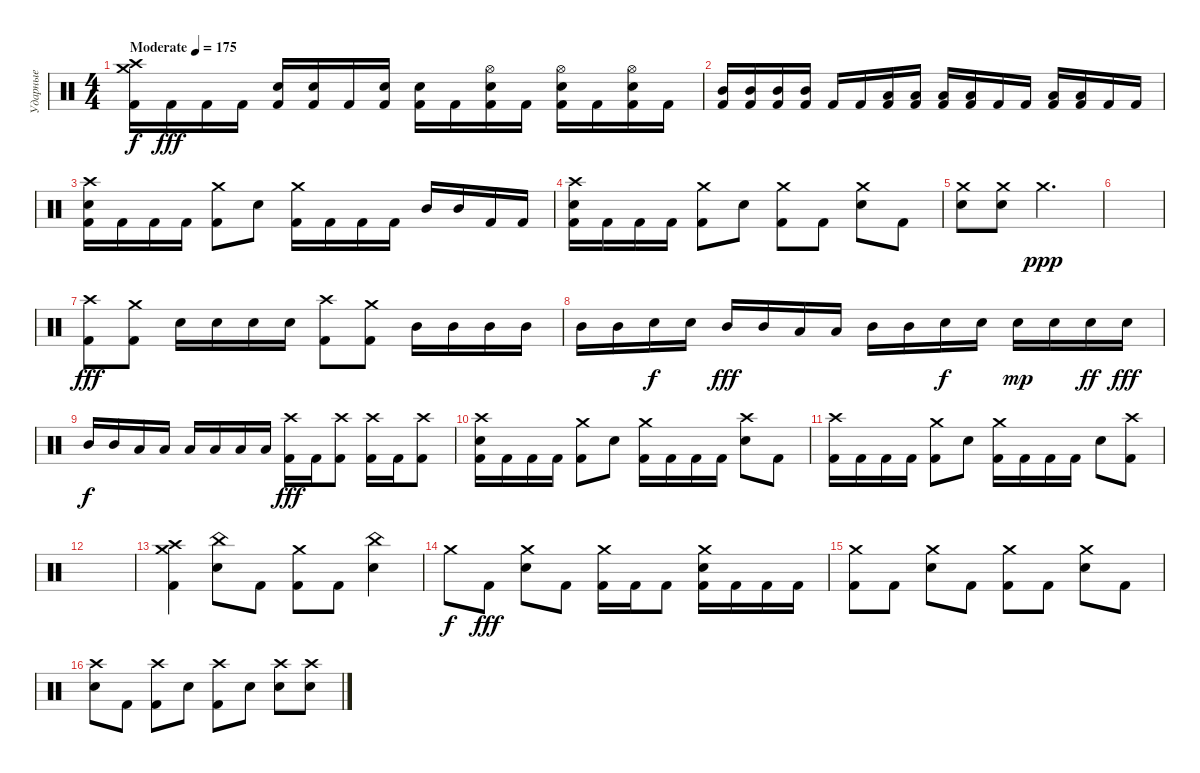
\track ("Ударные" "Ударные") {instrument percussion}
\staff {score}
\articulation defaults
\ts (4 4)
\tempo (175 "Moderate")
\clef neutral
\ks c
("Crash high (hit)" "Crash medium (hit)" "Kick (hit) 2").16{dy f} "Kick (hit) 2".16{dy fff} "Kick (hit) 2".16 "Kick (hit) 2".16 ("Electric Snare (hit)" "Kick (hit) 2").16 ("Electric Snare (hit)" "Kick (hit) 2").16 "Kick (hit) 2".16 ("Electric Snare (hit)" "Kick (hit) 2").16 ("Electric Snare (hit)" "Kick (hit) 2").16 "Kick (hit) 2".16 ("Hi-Hat (open)" "Electric Snare (hit)" "Kick (hit) 2").16 "Kick (hit) 2".16 ("Hi-Hat (open)" "Electric Snare (hit)" "Kick (hit) 2").16 "Kick (hit) 2".16 ("Hi-Hat (open)" "Electric Snare (hit)" "Kick (hit) 2").16 "Kick (hit) 2".16 |
("Mid Tom (hit)" "Kick (hit) 2").16 ("Mid Tom (hit)" "Kick (hit) 2").16 ("Mid Tom (hit)" "Kick (hit) 2").16 ("Mid Tom (hit)" "Kick (hit) 2").16 "Kick (hit) 2".16 "Kick (hit) 2".16 ("Low Tom (hit)" "Kick (hit) 2").16 ("Low Tom (hit)" "Kick (hit) 2").16 ("Low Tom (hit)" "Kick (hit) 2").16 ("Low Tom (hit)" "Kick (hit) 2").16 "Kick (hit) 2".16 "Kick (hit) 2".16 ("Low Floor Tom (hit)" "Kick (hit) 2").16 ("Low Floor Tom (hit)" "Kick (hit) 2").16 "Kick (hit) 2".16 "Kick (hit) 2".16 |
("Crash high (hit)" "Electric Snare (hit)" "Kick (hit) 2").16 "Kick (hit) 2".16 "Kick (hit) 2".16 "Kick (hit) 2".16 ("Crash medium (hit)" "Kick (hit) 2").8 "Electric Snare (hit)".8 ("Crash medium (hit)" "Kick (hit) 2").16 "Kick (hit) 2".16 "Kick (hit) 2".16 "Kick (hit) 2".16 "Mid Tom (hit)".16 "Mid Tom (hit)".16 "Kick (hit) 2".16 "Kick (hit) 2".16 |
("Crash high (hit)" "Electric Snare (hit)" "Kick (hit) 2").16 "Kick (hit) 2".16 "Kick (hit) 2".16 "Kick (hit) 2".16 ("Crash medium (hit)" "Kick (hit) 2").8 "Electric Snare (hit)".8 ("Crash medium (hit)" "Kick (hit) 2").8 "Kick (hit) 2".8 ("Crash medium (hit)" "Electric Snare (hit)").8 "Kick (hit) 2".8 |
("Crash medium (hit)" "Electric Snare (hit)").8 ("Crash medium (hit)" "Electric Snare (hit)").8 "Crash medium (hit)".2{d dy ppp} |
|
("Crash high (hit)" "Kick (hit) 2").8{dy fff} ("Crash medium (hit)" "Kick (hit) 2").8 "Electric Snare (hit)".16 "Electric Snare (hit)".16 "Electric Snare (hit)".16 "Electric Snare (hit)".16 ("Crash high (hit)" "Kick (hit) 2").8 ("Crash medium (hit)" "Kick (hit) 2").8 "Mid Tom (hit)".16 "Mid Tom (hit)".16 "Mid Tom (hit)".16 "Mid Tom (hit)".16 |
"Mid Tom (hit)".16 "Mid Tom (hit)".16 "Electric Snare (hit)".16{dy f} "Electric Snare (hit)".16 "Mid Tom (hit)".16{dy fff} "Mid Tom (hit)".16 "Low Tom (hit)".16 "Low Tom (hit)".16 "Mid Tom (hit)".16 "Mid Tom (hit)".16 "Electric Snare (hit)".16{dy f} "Electric Snare (hit)".16 "Electric Snare (hit)".16{dy mp} "Electric Snare (hit)".16 "Electric Snare (hit)".16{dy ff} "Electric Snare (hit)".16{dy fff} |
"Mid Tom (hit)".16{dy f} "Mid Tom (hit)".16 "Low Tom (hit)".16 "Low Tom (hit)".16 "Low Floor Tom (hit)".16 "Low Floor Tom (hit)".16 "Low Floor Tom (hit)".16 "Low Floor Tom (hit)".16 ("Crash high (hit)" "Kick (hit) 2").16{dy fff} "Kick (hit) 2".16 ("Crash high (hit)" "Kick (hit) 2").8 ("Crash high (hit)" "Kick (hit) 2").16 "Kick (hit) 2".16 ("Crash high (hit)" "Kick (hit) 2").8 |
("Crash high (hit)" "Electric Snare (hit)" "Kick (hit) 2").16 "Kick (hit) 2".16 "Kick (hit) 2".16 "Kick (hit) 2".16 ("Crash medium (hit)" "Kick (hit) 2").8 "Electric Snare (hit)".8 ("Crash medium (hit)" "Kick (hit) 2").16 "Kick (hit) 2".16 "Kick (hit) 2".16 "Kick (hit) 2".16 ("Crash high (hit)" "Electric Snare (hit)").8 "Kick (hit) 2".8 |
("Crash high (hit)" "Kick (hit) 2").16 "Kick (hit) 2".16 "Kick (hit) 2".16 "Kick (hit) 2".16 ("Crash medium (hit)" "Kick (hit) 2").8 "Electric Snare (hit)".8 ("Crash medium (hit)" "Kick (hit) 2").16 "Kick (hit) 2".16 "Kick (hit) 2".16 "Kick (hit) 2".16 "Electric Snare (hit)".8 ("Crash high (hit)" "Kick (hit) 2").8 |
|
("Crash high (hit)" "Crash medium (hit)" "Kick (hit) 2").4 ("China (hit)" "Electric Snare (hit)").8 "Kick (hit) 2".8 ("Crash medium (hit)" "Kick (hit) 2").8 "Kick (hit) 2".8 ("China (hit)" "Electric Snare (hit)").4 |
"Crash medium (hit)".8{dy f} "Kick (hit) 2".8{dy fff} ("Crash medium (hit)" "Electric Snare (hit)").8 "Kick (hit) 2".8 ("Crash medium (hit)" "Kick (hit) 2").16 "Kick (hit) 2".16 "Kick (hit) 2".8 ("Crash medium (hit)" "Electric Snare (hit)" "Kick (hit) 2").16 "Kick (hit) 2".16 "Kick (hit) 2".16 "Kick (hit) 2".16 |
("Crash medium (hit)" "Kick (hit) 2").8 "Kick (hit) 2".8 ("Crash medium (hit)" "Electric Snare (hit)").8 "Kick (hit) 2".8 ("Crash medium (hit)" "Kick (hit) 2").8 "Kick (hit) 2".8 ("Crash medium (hit)" "Electric Snare (hit)").8 "Kick (hit) 2".8 |
("Crash high (hit)" "Electric Snare (hit)").8 "Kick (hit) 2".8 ("Crash high (hit)" "Kick (hit) 2").8 "Electric Snare (hit)".8 ("Crash high (hit)" "Kick (hit) 2").8 "Electric Snare (hit)".8 ("Crash high (hit)" "Electric Snare (hit)").8 ("Crash high (hit)" "Electric Snare (hit)").8
